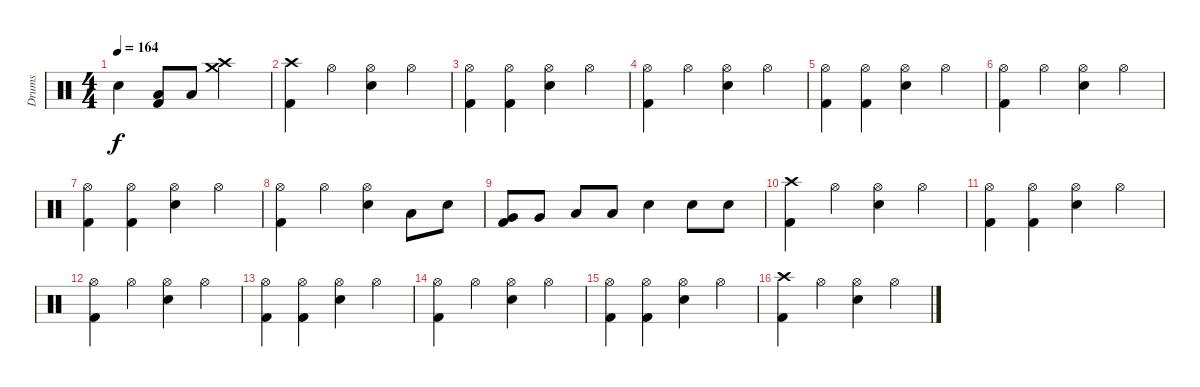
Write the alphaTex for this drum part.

\track ("Drums" "Drums") {instrument percussion}
\staff {score}
\articulation defaults
\ts (4 4)
\tempo 164
\clef neutral
\ks c "Snare (hit) 2".4{dy f}
("Low Floor Tom (hit)" "Kick (hit) 2").8 "Low Floor Tom (hit)".8 ("Crash high (hit)" "Crash medium (hit)").2 |
("Crash high (hit)" "Kick (hit) 2").4 "Hi-Hat (open)".4 ("Hi-Hat (open)" "Snare (hit) 2").4 "Hi-Hat (open)".4 |
("Hi-Hat (open)" "Kick (hit) 2").4 ("Hi-Hat (open)" "Kick (hit) 2").4 ("Hi-Hat (open)" "Snare (hit) 2").4 "Hi-Hat (open)".4 |
("Hi-Hat (open)" "Kick (hit) 2").4 "Hi-Hat (open)".4 ("Hi-Hat (open)" "Snare (hit) 2").4 "Hi-Hat (open)".4 |
("Hi-Hat (open)" "Kick (hit) 2").4 ("Hi-Hat (open)" "Kick (hit) 2").4 ("Hi-Hat (open)" "Snare (hit) 2").4 "Hi-Hat (open)".4 |
("Hi-Hat (open)" "Kick (hit) 2").4 "Hi-Hat (open)".4 ("Hi-Hat (open)" "Snare (hit) 2").4 "Hi-Hat (open)".4 |
("Hi-Hat (open)" "Kick (hit) 2").4 ("Hi-Hat (open)" "Kick (hit) 2").4 ("Hi-Hat (open)" "Snare (hit) 2").4 "Hi-Hat (open)".4 |
("Hi-Hat (open)" "Kick (hit) 2").4 "Hi-Hat (open)".4 ("Hi-Hat (open)" "Snare (hit) 2").4 "Low Tom (hit)".8 "Snare (hit) 2".8 |
("Kick (hit) 2" "Very Low Tom (hit)").8 "Very Low Tom (hit)".8 "Low Floor Tom (hit)".8 "Low Floor Tom (hit)".8 "Snare (hit) 2".4 "Snare (hit) 2".8 "Snare (hit) 2".8 |
("Crash high (hit)" "Kick (hit) 2").4 "Hi-Hat (open)".4 ("Hi-Hat (open)" "Snare (hit) 2").4 "Hi-Hat (open)".4 |
("Hi-Hat (open)" "Kick (hit) 2").4 ("Hi-Hat (open)" "Kick (hit) 2").4 ("Hi-Hat (open)" "Snare (hit) 2").4 "Hi-Hat (open)".4 |
("Hi-Hat (open)" "Kick (hit) 2").4 "Hi-Hat (open)".4 ("Hi-Hat (open)" "Snare (hit) 2").4 "Hi-Hat (open)".4 |
("Hi-Hat (open)" "Kick (hit) 2").4 ("Hi-Hat (open)" "Kick (hit) 2").4 ("Hi-Hat (open)" "Snare (hit) 2").4 "Hi-Hat (open)".4 |
("Hi-Hat (open)" "Kick (hit) 2").4 "Hi-Hat (open)".4 ("Hi-Hat (open)" "Snare (hit) 2").4 "Hi-Hat (open)".4 |
("Hi-Hat (open)" "Kick (hit) 2").4 ("Hi-Hat (open)" "Kick (hit) 2").4 ("Hi-Hat (open)" "Snare (hit) 2").4 "Hi-Hat (open)".4 |
("Crash high (hit)" "Kick (hit) 2").4 "Hi-Hat (open)".4 ("Hi-Hat (open)" "Snare (hit) 2").4 "Hi-Hat (open)".4
